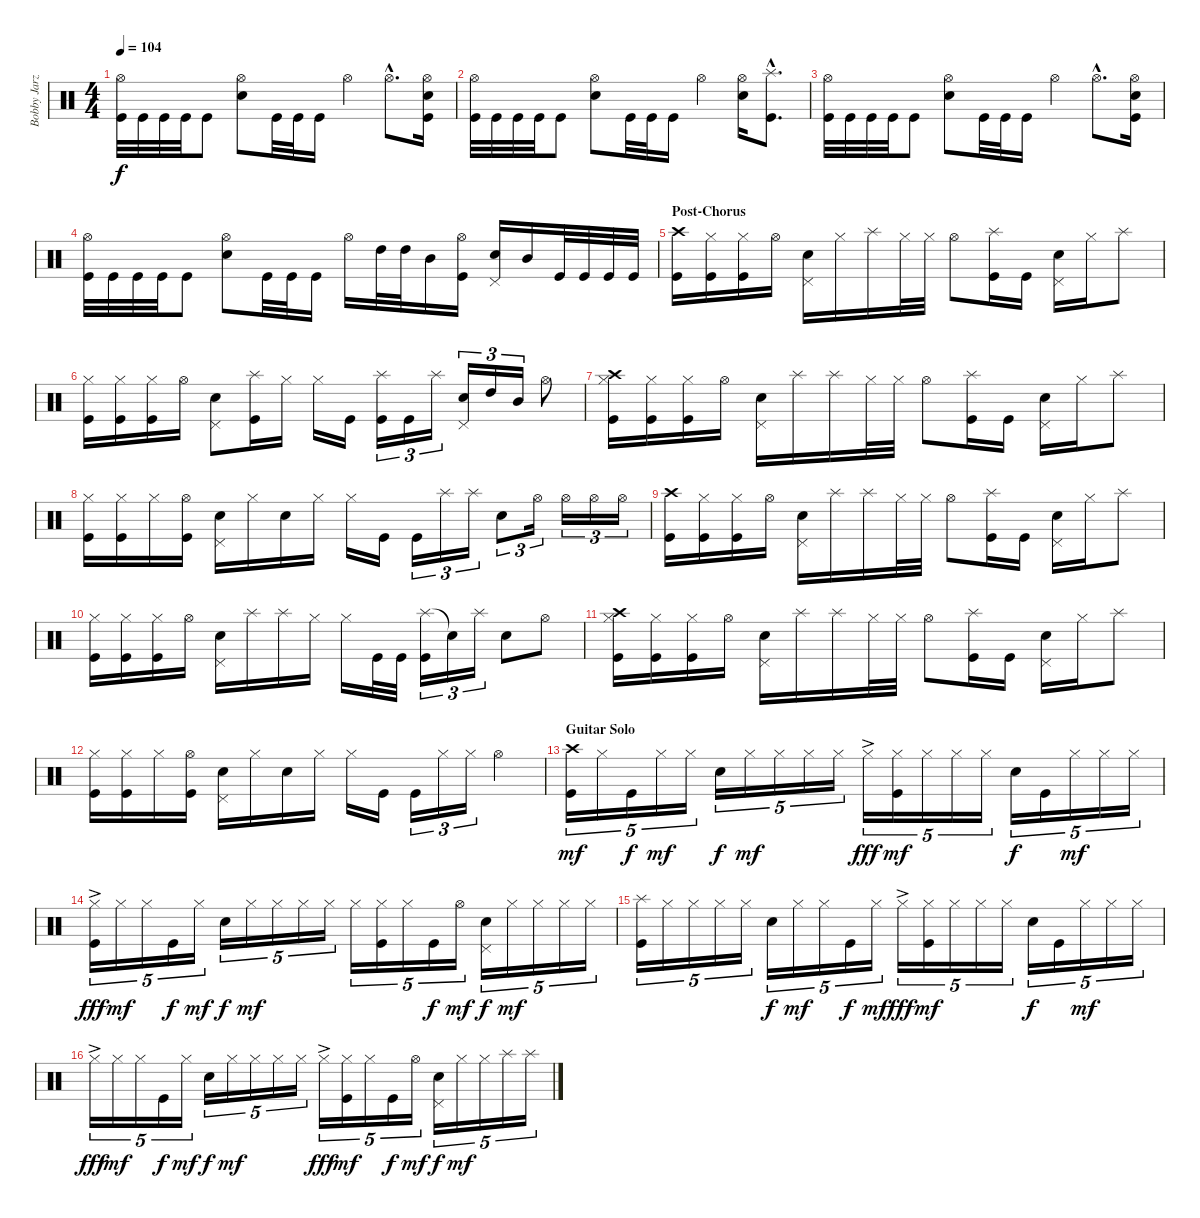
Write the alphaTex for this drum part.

\track ("Bobby Jarzombek" "Bobby Jarz") {instrument percussion}
\staff {score}
\articulation defaults
\ts (4 4)
\tempo 104
\clef neutral
\ks c
("Hi-Hat (open)" "Kick (hit)").32{dy f} "Kick (hit)".32 "Kick (hit)".32 "Kick (hit)".32 "Kick (hit)".8 ("Hi-Hat (open)" "Electric Snare (hit)").8 "Kick (hit)".32 "Kick (hit)".32 "Kick (hit)".16 "Hi-Hat (open)".4 "Hi-Hat (open)"{hac}.8{d} ("Hi-Hat (open)" "Electric Snare (hit)" "Kick (hit)").16 |
("Hi-Hat (open)" "Kick (hit)").32 "Kick (hit)".32 "Kick (hit)".32 "Kick (hit)".32 "Kick (hit)".8 ("Hi-Hat (open)" "Electric Snare (hit)").8 "Kick (hit)".32 "Kick (hit)".32 "Kick (hit)".16 "Hi-Hat (open)".4 ("Hi-Hat (open)" "Electric Snare (hit)").16 ("Splash (hit)"{hac} "Kick (hit)"{hac}).8{d} |
("Hi-Hat (open)" "Kick (hit)").32 "Kick (hit)".32 "Kick (hit)".32 "Kick (hit)".32 "Kick (hit)".8 ("Hi-Hat (open)" "Electric Snare (hit)").8 "Kick (hit)".32 "Kick (hit)".32 "Kick (hit)".16 "Hi-Hat (open)".4 "Hi-Hat (open)"{hac}.8{d} ("Hi-Hat (open)" "Electric Snare (hit)" "Kick (hit)").16 |
("Hi-Hat (open)" "Kick (hit)").32 "Kick (hit)".32 "Kick (hit)".32 "Kick (hit)".32 "Kick (hit)".8 ("Hi-Hat (open)" "Electric Snare (hit)").8 "Kick (hit)".32 "Kick (hit)".32 "Kick (hit)".16 "Hi-Hat (open)".16 "High Tom (hit)".32 "High Tom (hit)".32 "Mid Tom (hit)".16 ("Hi-Hat (open)" "Kick (hit)").16 ("Electric Snare (hit)" "Pedal Hi-Hat (hit)").16 "Mid Tom (hit)".16 "Kick (hit)".32 "Kick (hit)".32 "Kick (hit)".32 "Kick (hit)".32 |
\section ("" "Post-Chorus")
("Crash high (hit)" "Kick (hit)").16 ("Hi-Hat (closed)" "Kick (hit)").16 ("Hi-Hat (closed)" "Kick (hit)").16 "Hi-Hat (open)".16 ("Electric Snare (hit)" "Pedal Hi-Hat (hit)").16 "Hi-Hat (closed)".16 "Splash (hit)".16 "Hi-Hat (closed)".32 "Hi-Hat (closed)".32 "Hi-Hat (open)".8 ("Splash (hit)" "Kick (hit)").16 "Kick (hit)".16 ("Electric Snare (hit)" "Pedal Hi-Hat (hit)").16 "Hi-Hat (closed)".16 "Splash (hit)".8 |
("Hi-Hat (closed)" "Kick (hit)").16 ("Hi-Hat (closed)" "Kick (hit)").16 ("Hi-Hat (closed)" "Kick (hit)").16 "Hi-Hat (open)".16 ("Electric Snare (hit)" "Pedal Hi-Hat (hit)").8 ("Splash (hit)" "Kick (hit)").16 "Hi-Hat (closed)".16 "Hi-Hat (closed)".16 "Kick (hit)".16 ("Splash (hit)" "Kick (hit)").16{tu (3 2)} "Kick (hit)".16{tu (3 2)} "Splash (hit)".16{tu (3 2)} ("Electric Snare (hit)" "Pedal Hi-Hat (hit)").16{tu (3 2)} "High Tom (hit)".16{tu (3 2)} "Mid Tom (hit)".16{tu (3 2)} "Hi-Hat (open)".8 |
("Crash high (hit)" "Hi-Hat (closed)" "Kick (hit)").16 ("Hi-Hat (closed)" "Kick (hit)").16 ("Hi-Hat (closed)" "Kick (hit)").16 "Hi-Hat (open)".16 ("Electric Snare (hit)" "Pedal Hi-Hat (hit)").16 "Splash (hit)".16 "Splash (hit)".16 "Hi-Hat (closed)".32 "Hi-Hat (closed)".32 "Hi-Hat (open)".8 ("Splash (hit)" "Kick (hit)").16 "Kick (hit)".16 ("Electric Snare (hit)" "Pedal Hi-Hat (hit)").16 "Hi-Hat (closed)".16 "Splash (hit)".8 |
("Hi-Hat (closed)" "Kick (hit)").16 ("Hi-Hat (closed)" "Kick (hit)").16 "Hi-Hat (closed)".16 ("Hi-Hat (open)" "Kick (hit)").16 ("Electric Snare (hit)" "Pedal Hi-Hat (hit)").16 "Hi-Hat (closed)".16 "Electric Snare (hit)".16 "Hi-Hat (closed)".16 "Hi-Hat (closed)".16 "Kick (hit)".16 "Kick (hit)".16{tu (3 2)} "Splash (hit)".16{tu (3 2)} "Splash (hit)".16{tu (3 2)} "Electric Snare (hit)".8{tu (3 2)} "Hi-Hat (open)".16{tu (3 2)} "Hi-Hat (open)".16{tu (3 2)} "Hi-Hat (open)".16{tu (3 2)} "Hi-Hat (open)".16{tu (3 2)} |
("Crash high (hit)" "Kick (hit)").16 ("Hi-Hat (closed)" "Kick (hit)").16 ("Hi-Hat (closed)" "Kick (hit)").16 "Hi-Hat (open)".16 ("Electric Snare (hit)" "Pedal Hi-Hat (hit)").16 "Splash (hit)".16 "Splash (hit)".16 "Hi-Hat (closed)".32 "Hi-Hat (closed)".32 "Hi-Hat (open)".8 ("Splash (hit)" "Kick (hit)").16 "Kick (hit)".16 ("Electric Snare (hit)" "Pedal Hi-Hat (hit)").16 "Hi-Hat (closed)".16 "Splash (hit)".8 |
("Hi-Hat (closed)" "Kick (hit)").16 ("Hi-Hat (closed)" "Kick (hit)").16 ("Hi-Hat (closed)" "Kick (hit)").16 "Hi-Hat (open)".16 ("Electric Snare (hit)" "Pedal Hi-Hat (hit)").16 "Splash (hit)".16 "Splash (hit)".16 "Hi-Hat (closed)".16 "Hi-Hat (closed)".16 "Kick (hit)".32 "Kick (hit)".32 ("Splash (hit)" "Kick (hit)").16{tu (3 2)} "Snare (hit)"{t}.16{tu (3 2)} "Splash (hit)".16{tu (3 2)} "Electric Snare (hit)".8 "Hi-Hat (open)".8 |
("Crash high (hit)" "Hi-Hat (closed)" "Kick (hit)").16 ("Hi-Hat (closed)" "Kick (hit)").16 ("Hi-Hat (closed)" "Kick (hit)").16 "Hi-Hat (open)".16 ("Electric Snare (hit)" "Pedal Hi-Hat (hit)").16 "Splash (hit)".16 "Splash (hit)".16 "Hi-Hat (closed)".32 "Hi-Hat (closed)".32 "Hi-Hat (open)".8 ("Splash (hit)" "Kick (hit)").16 "Kick (hit)".16 ("Electric Snare (hit)" "Pedal Hi-Hat (hit)").16 "Hi-Hat (closed)".16 "Splash (hit)".8 |
("Hi-Hat (closed)" "Kick (hit)").16 ("Hi-Hat (closed)" "Kick (hit)").16 "Hi-Hat (closed)".16 ("Hi-Hat (open)" "Kick (hit)").16 ("Electric Snare (hit)" "Pedal Hi-Hat (hit)").16 "Hi-Hat (closed)".16 "Electric Snare (hit)".16 "Hi-Hat (closed)".16 "Hi-Hat (closed)".16 "Kick (hit)".16 "Kick (hit)".16{tu (3 2)} "Hi-Hat (closed)".16{tu (3 2)} "Hi-Hat (closed)".16{tu (3 2)} "Hi-Hat (open)".4 |
\section ("" "Guitar Solo")
("Crash high (hit)" "Kick (hit)").16{tu (5 4) dy mf} "Hi-Hat (closed)".16{tu (5 4)} "Kick (hit)".16{tu (5 4) dy f} "Hi-Hat (closed)".16{tu (5 4) dy mf} "Hi-Hat (closed)".16{tu (5 4)} "Electric Snare (hit)".16{tu (5 4) dy f} "Hi-Hat (closed)".16{tu (5 4) dy mf} "Hi-Hat (closed)".16{tu (5 4)} "Hi-Hat (closed)".16{tu (5 4)} "Hi-Hat (closed)".16{tu (5 4)} "Hi-Hat (closed)"{ac}.16{tu (5 4) dy fff} ("Hi-Hat (closed)" "Kick (hit)").16{tu (5 4) dy mf} "Hi-Hat (closed)".16{tu (5 4)} "Hi-Hat (closed)".16{tu (5 4)} "Hi-Hat (closed)".16{tu (5 4)} "Electric Snare (hit)".16{tu (5 4) dy f} "Kick (hit)".16{tu (5 4)} "Hi-Hat (closed)".16{tu (5 4) dy mf} "Hi-Hat (closed)".16{tu (5 4)} "Hi-Hat (closed)".16{tu (5 4)} |
("Hi-Hat (closed)"{ac} "Kick (hit)").16{tu (5 4) dy fff} "Hi-Hat (closed)".16{tu (5 4) dy mf} "Hi-Hat (closed)".16{tu (5 4)} "Kick (hit)".16{tu (5 4) dy f} "Hi-Hat (closed)".16{tu (5 4) dy mf} "Electric Snare (hit)".16{tu (5 4) dy f} "Hi-Hat (closed)".16{tu (5 4) dy mf} "Hi-Hat (closed)".16{tu (5 4)} "Hi-Hat (closed)".16{tu (5 4)} "Hi-Hat (closed)".16{tu (5 4)} "Hi-Hat (closed)".16{tu (5 4)} ("Hi-Hat (closed)" "Kick (hit)").16{tu (5 4)} "Hi-Hat (closed)".16{tu (5 4)} "Kick (hit)".16{tu (5 4) dy f} "Hi-Hat (open)".16{tu (5 4) dy mf} ("Electric Snare (hit)" "Pedal Hi-Hat (hit)").16{tu (5 4) dy f} "Hi-Hat (closed)".16{tu (5 4) dy mf} "Hi-Hat (closed)".16{tu (5 4)} "Hi-Hat (closed)".16{tu (5 4)} "Hi-Hat (closed)".16{tu (5 4)} |
("Splash (hit)" "Kick (hit)").16{tu (5 4)} "Hi-Hat (closed)".16{tu (5 4)} "Hi-Hat (closed)".16{tu (5 4)} "Hi-Hat (closed)".16{tu (5 4)} "Hi-Hat (closed)".16{tu (5 4)} "Electric Snare (hit)".16{tu (5 4) dy f} "Hi-Hat (closed)".16{tu (5 4) dy mf} "Hi-Hat (closed)".16{tu (5 4)} "Kick (hit)".16{tu (5 4) dy f} "Hi-Hat (closed)".16{tu (5 4) dy mf} "Hi-Hat (closed)"{ac}.16{tu (5 4) dy fff} ("Hi-Hat (closed)" "Kick (hit)").16{tu (5 4) dy mf} "Hi-Hat (closed)".16{tu (5 4)} "Hi-Hat (closed)".16{tu (5 4)} "Hi-Hat (closed)".16{tu (5 4)} "Electric Snare (hit)".16{tu (5 4) dy f} "Kick (hit)".16{tu (5 4)} "Hi-Hat (closed)".16{tu (5 4) dy mf} "Hi-Hat (closed)".16{tu (5 4)} "Hi-Hat (closed)".16{tu (5 4)} |
"Hi-Hat (closed)"{ac}.16{tu (5 4) dy fff} "Hi-Hat (closed)".16{tu (5 4) dy mf} "Hi-Hat (closed)".16{tu (5 4)} "Kick (hit)".16{tu (5 4) dy f} "Hi-Hat (closed)".16{tu (5 4) dy mf} "Electric Snare (hit)".16{tu (5 4) dy f} "Hi-Hat (closed)".16{tu (5 4) dy mf} "Hi-Hat (closed)".16{tu (5 4)} "Hi-Hat (closed)".16{tu (5 4)} "Hi-Hat (closed)".16{tu (5 4)} "Hi-Hat (closed)"{ac}.16{tu (5 4) dy fff} ("Hi-Hat (closed)" "Kick (hit)").16{tu (5 4) dy mf} "Hi-Hat (closed)".16{tu (5 4)} "Kick (hit)".16{tu (5 4) dy f} "Hi-Hat (open)".16{tu (5 4) dy mf} ("Electric Snare (hit)" "Pedal Hi-Hat (hit)").16{tu (5 4) dy f} "Hi-Hat (closed)".16{tu (5 4) dy mf} "Hi-Hat (closed)".16{tu (5 4)} "Splash (hit)".16{tu (5 4)} "Splash (hit)".16{tu (5 4)}
